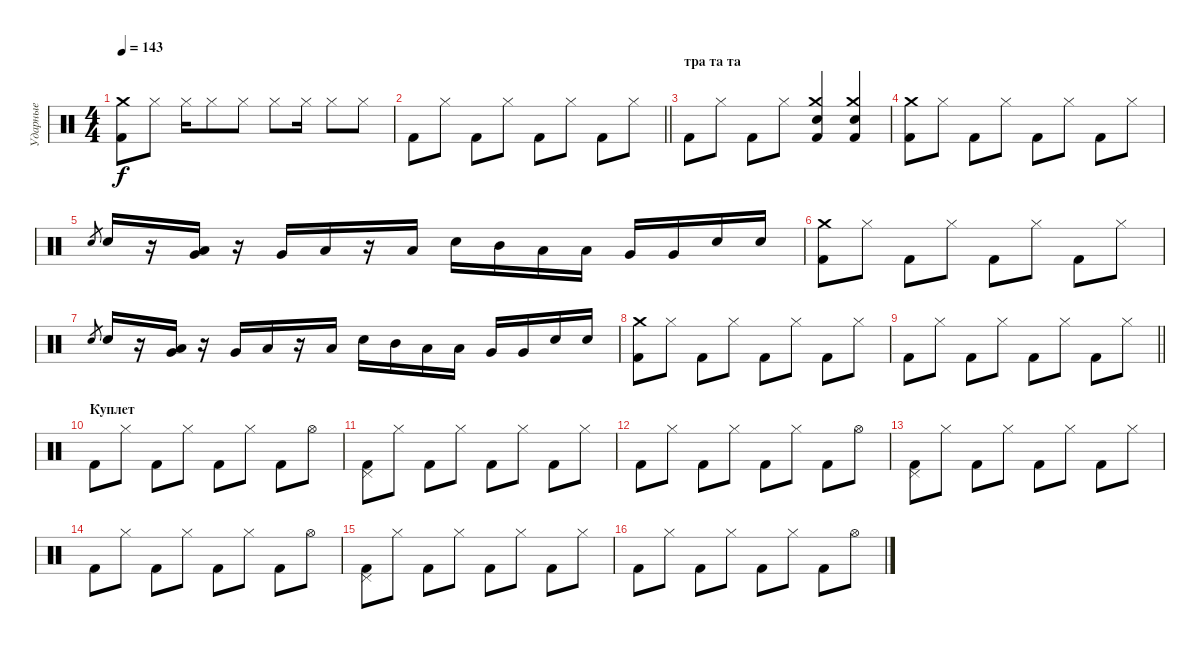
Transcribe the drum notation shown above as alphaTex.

\track ("Ударные" "Ударные") {instrument percussion}
\staff {score}
\articulation defaults
\ts (4 4)
\tempo 143
\clef neutral
\ks c
("Kick (hit) 2" "Crash medium (hit)").8{dy f} "Hi-Hat (closed)".8 "Hi-Hat (closed)".16 "Hi-Hat (closed)".8 "Hi-Hat (closed)".8 "Hi-Hat (closed)".8 "Hi-Hat (closed)".16 "Hi-Hat (closed)".8 "Hi-Hat (closed)".8 |
\barLineRight lightlight "Kick (hit) 2".8 "Hi-Hat (closed)".8 "Kick (hit) 2".8 "Hi-Hat (closed)".8 "Kick (hit) 2".8 "Hi-Hat (closed)".8 "Kick (hit) 2".8 "Hi-Hat (closed)".8
|
\section ("" "тра та та")
"Kick (hit) 2".8 "Hi-Hat (closed)".8 "Kick (hit) 2".8 "Hi-Hat (closed)".8 ("Snare (hit) 2" "Crash medium (hit)" "Kick (hit) 2").4 ("Crash medium (hit)" "Snare (hit) 2" "Kick (hit) 2").4 |
("Kick (hit) 2" "Crash medium (hit)").8 "Hi-Hat (closed)".8 "Kick (hit) 2".8 "Hi-Hat (closed)".8 "Kick (hit) 2".8 "Hi-Hat (closed)".8 "Kick (hit) 2".8 "Hi-Hat (closed)".8 |
"Snare (hit) 2".8{gr} "Snare (hit) 2".16 r.16 ("Low Tom (hit)" "Very Low Tom (hit)").16 r.16 "Very Low Tom (hit)".16 "Low Floor Tom (hit)".16 r.16 "Low Floor Tom (hit)".16 "Snare (hit) 2".16 "Mid Tom (hit)".16 "Low Tom (hit)".16 "Low Tom (hit)".16 "Very Low Tom (hit)".16 "Very Low Tom (hit)".16 "Snare (hit) 2".16 "Snare (hit) 2".16 |
("Kick (hit) 2" "Crash medium (hit)").8 "Hi-Hat (closed)".8 "Kick (hit) 2".8 "Hi-Hat (closed)".8 "Kick (hit) 2".8 "Hi-Hat (closed)".8 "Kick (hit) 2".8 "Hi-Hat (closed)".8 |
"Snare (hit) 2".8{gr} "Snare (hit) 2".16 r.16 ("Low Tom (hit)" "Very Low Tom (hit)").16 r.16 "Very Low Tom (hit)".16 "Low Floor Tom (hit)".16 r.16 "Low Floor Tom (hit)".16 "Snare (hit) 2".16 "Mid Tom (hit)".16 "Low Tom (hit)".16 "Low Tom (hit)".16 "Very Low Tom (hit)".16 "Very Low Tom (hit)".16 "Snare (hit) 2".16 "Snare (hit) 2".16 |
("Kick (hit) 2" "Crash medium (hit)").8 "Hi-Hat (closed)".8 "Kick (hit) 2".8 "Hi-Hat (closed)".8 "Kick (hit) 2".8 "Hi-Hat (closed)".8 "Kick (hit) 2".8 "Hi-Hat (closed)".8 |
\barLineRight lightlight "Kick (hit) 2".8 "Hi-Hat (closed)".8 "Kick (hit) 2".8 "Hi-Hat (closed)".8 "Kick (hit) 2".8 "Hi-Hat (closed)".8 "Kick (hit) 2".8 "Hi-Hat (closed)".8
|
\section ("" "Куплет")
"Kick (hit) 2".8 "Hi-Hat (closed)".8 "Kick (hit) 2".8 "Hi-Hat (closed)".8 "Kick (hit) 2".8 "Hi-Hat (closed)".8 "Kick (hit) 2".8 "Hi-Hat (open)".8 |
("Kick (hit) 2" "Pedal Hi-Hat (hit)").8 "Hi-Hat (closed)".8 "Kick (hit) 2".8 "Hi-Hat (closed)".8 "Kick (hit) 2".8 "Hi-Hat (closed)".8 "Kick (hit) 2".8 "Hi-Hat (closed)".8 |
"Kick (hit) 2".8 "Hi-Hat (closed)".8 "Kick (hit) 2".8 "Hi-Hat (closed)".8 "Kick (hit) 2".8 "Hi-Hat (closed)".8 "Kick (hit) 2".8 "Hi-Hat (open)".8 |
("Kick (hit) 2" "Pedal Hi-Hat (hit)").8 "Hi-Hat (closed)".8 "Kick (hit) 2".8 "Hi-Hat (closed)".8 "Kick (hit) 2".8 "Hi-Hat (closed)".8 "Kick (hit) 2".8 "Hi-Hat (closed)".8 |
"Kick (hit) 2".8 "Hi-Hat (closed)".8 "Kick (hit) 2".8 "Hi-Hat (closed)".8 "Kick (hit) 2".8 "Hi-Hat (closed)".8 "Kick (hit) 2".8 "Hi-Hat (open)".8 |
("Kick (hit) 2" "Pedal Hi-Hat (hit)").8 "Hi-Hat (closed)".8 "Kick (hit) 2".8 "Hi-Hat (closed)".8 "Kick (hit) 2".8 "Hi-Hat (closed)".8 "Kick (hit) 2".8 "Hi-Hat (closed)".8 |
"Kick (hit) 2".8 "Hi-Hat (closed)".8 "Kick (hit) 2".8 "Hi-Hat (closed)".8 "Kick (hit) 2".8 "Hi-Hat (closed)".8 "Kick (hit) 2".8 "Hi-Hat (open)".8
